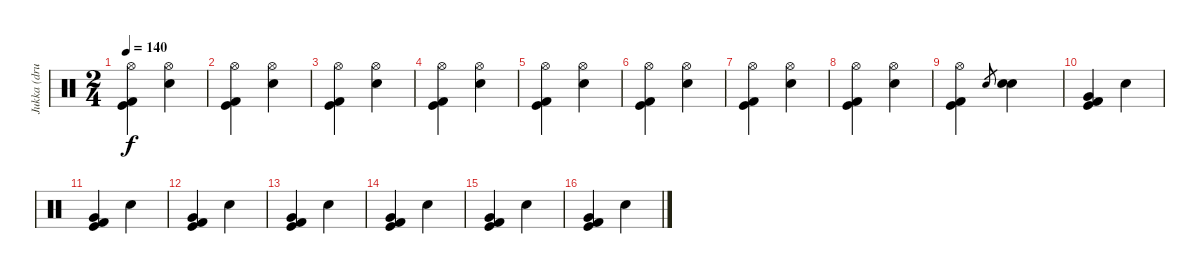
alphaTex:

\track ("Jukka (drums)" "Jukka (dru") {instrument percussion}
\staff {score}
\articulation defaults
\ts (2 4)
\tempo 140
\clef neutral
\ks c
("Kick (hit)" "Kick (hit) 2" "Hi-Hat (open)").4{dy f} ("Electric Snare (hit)" "Hi-Hat (open)").4 |
("Kick (hit)" "Kick (hit) 2" "Hi-Hat (open)").4 ("Electric Snare (hit)" "Hi-Hat (open)").4 |
("Kick (hit)" "Kick (hit) 2" "Hi-Hat (open)").4 ("Electric Snare (hit)" "Hi-Hat (open)").4 |
("Kick (hit)" "Kick (hit) 2" "Hi-Hat (open)").4 ("Electric Snare (hit)" "Hi-Hat (open)").4 |
("Kick (hit)" "Kick (hit) 2" "Hi-Hat (open)").4 ("Electric Snare (hit)" "Hi-Hat (open)").4 |
("Kick (hit)" "Kick (hit) 2" "Hi-Hat (open)").4 ("Electric Snare (hit)" "Hi-Hat (open)").4 |
("Kick (hit)" "Kick (hit) 2" "Hi-Hat (open)").4 ("Electric Snare (hit)" "Hi-Hat (open)").4 |
("Kick (hit)" "Kick (hit) 2" "Hi-Hat (open)").4 ("Electric Snare (hit)" "Hi-Hat (open)").4 |
("Kick (hit)" "Kick (hit) 2" "Hi-Hat (open)").4 "Electric Snare (hit)".8{gr} ("Electric Snare (hit)" "Electric Snare (hit)").4 |
("Kick (hit)" "Kick (hit) 2" "Very Low Tom (hit)").4 "Electric Snare (hit)".4 |
("Kick (hit)" "Kick (hit) 2" "Very Low Tom (hit)").4 "Electric Snare (hit)".4 |
("Kick (hit)" "Kick (hit) 2" "Very Low Tom (hit)").4 "Electric Snare (hit)".4 |
("Kick (hit)" "Kick (hit) 2" "Very Low Tom (hit)").4 "Electric Snare (hit)".4 |
("Kick (hit)" "Kick (hit) 2" "Very Low Tom (hit)").4 "Electric Snare (hit)".4 |
("Kick (hit)" "Kick (hit) 2" "Very Low Tom (hit)").4 "Electric Snare (hit)".4 |
("Kick (hit)" "Kick (hit) 2" "Very Low Tom (hit)").4 "Electric Snare (hit)".4
